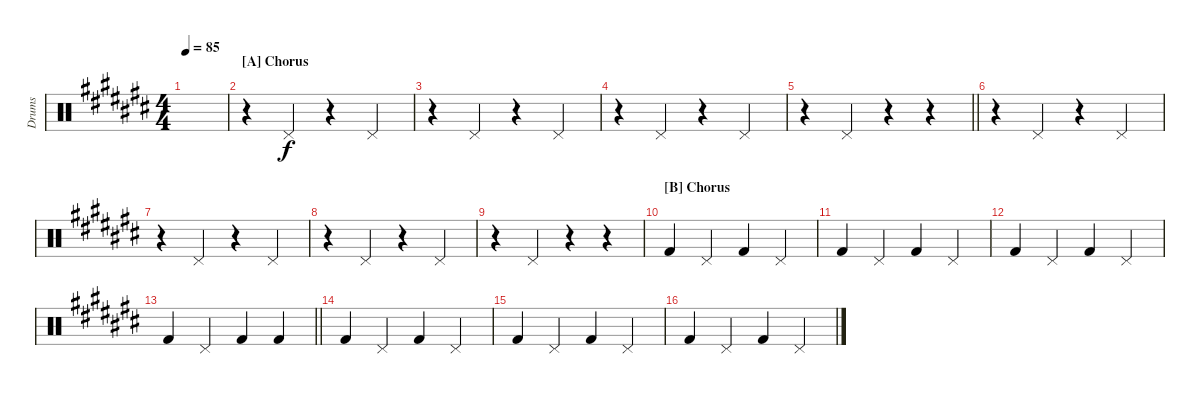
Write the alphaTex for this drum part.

\bracketExtendMode groupsimilarinstruments
\otherSystemsTrackNameOrientation horizontal
\track ("Drumkit" "Drums") {instrument percussion}
\staff {score}
\articulation defaults
\ts (4 4)
\scale
0.977525
\tempo 85
\accidentals auto
\clef neutral
\ottava regular
\simile none
\scale
0.333333
\ks c#
|
\section ("A" "Chorus")
\scale
0.963488
\scale
0.333333 r.4{beam Down} "Pedal Hi-Hat (hit)"{acc forcenatural}.4{beam Up} r.4{beam Up} "Pedal Hi-Hat (hit)"{acc forcenatural}.4{beam Up} |
\scale
1.04228
\scale
0.333333 r.4{beam Down} "Pedal Hi-Hat (hit)"{acc forcenatural}.4{beam Up} r.4{beam Up} "Pedal Hi-Hat (hit)"{acc forcenatural}.4{beam Up} |
\scale
0.971843
\scale
0.333333 r.4{beam Down} "Pedal Hi-Hat (hit)"{acc forcenatural}.4{beam Up} r.4{beam Up} "Pedal Hi-Hat (hit)"{acc forcenatural}.4{beam Up} |
\scale
0.98588
\scale
0.333333
\barLineRight lightlight
r.4{beam Down} "Pedal Hi-Hat (hit)"{acc forcenatural}.4{beam Up} r.4{beam Up} r.4{beam Up} |
\scale
1.07202
\scale
0.333333 r.4{beam Down} "Pedal Hi-Hat (hit)"{acc forcenatural}.4{beam Up} r.4{beam Up} "Pedal Hi-Hat (hit)"{acc forcenatural}.4{beam Up} |
\scale
0.951457
\scale
0.333333 r.4{beam Down} "Pedal Hi-Hat (hit)"{acc forcenatural}.4{beam Up} r.4{beam Up} "Pedal Hi-Hat (hit)"{acc forcenatural}.4{beam Up} |
\scale
0.976522
\scale
0.333333 r.4{beam Down} "Pedal Hi-Hat (hit)"{acc forcenatural}.4{beam Up} r.4{beam Up} "Pedal Hi-Hat (hit)"{acc forcenatural}.4{beam Up} |
\scale
1.08138
\scale
0.333333 r.4{beam Down} "Pedal Hi-Hat (hit)"{acc forcenatural}.4{beam Up} r.4{beam Up} r.4{beam Up} |
\section ("B" "Chorus")
\scale
0.971843
\scale
0.333333 "Kick (hit) 2"{acc forcenatural}.4{beam Up} "Pedal Hi-Hat (hit)"{acc forcenatural}.4{beam Up} "Kick (hit) 2"{acc forcenatural}.4{beam Up} "Pedal Hi-Hat (hit)"{acc forcenatural}.4{beam Up} |
\scale
0.946778
\scale
0.333333 "Kick (hit) 2"{acc forcenatural}.4{beam Up} "Pedal Hi-Hat (hit)"{acc forcenatural}.4{beam Up} "Kick (hit) 2"{acc forcenatural}.4{beam Up} "Pedal Hi-Hat (hit)"{acc forcenatural}.4{beam Up} |
\scale
1.05899
\scale
0.333333 "Kick (hit) 2"{acc forcenatural}.4{beam Up} "Pedal Hi-Hat (hit)"{acc forcenatural}.4{beam Up} "Kick (hit) 2"{acc forcenatural}.4{beam Up} "Pedal Hi-Hat (hit)"{acc forcenatural}.4{beam Up} |
\scale
0.977525
\scale
0.333333
\barLineRight lightlight "Kick (hit) 2"{acc forcenatural}.4{beam Up} "Pedal Hi-Hat (hit)"{acc forcenatural}.4{beam Up} "Kick (hit) 2"{acc forcenatural}.4{beam Up} "Kick (hit) 2"{acc forcenatural}.4{beam Up}
|
\scale
0.963488
\scale
0.333333 "Kick (hit) 2"{acc forcenatural}.4{beam Up} "Pedal Hi-Hat (hit)"{acc forcenatural}.4{beam Up} "Kick (hit) 2"{acc forcenatural}.4{beam Up} "Pedal Hi-Hat (hit)"{acc forcenatural}.4{beam Up} |
\scale
1.04228
\scale
0.333333 "Kick (hit) 2"{acc forcenatural}.4{beam Up} "Pedal Hi-Hat (hit)"{acc forcenatural}.4{beam Up} "Kick (hit) 2"{acc forcenatural}.4{beam Up} "Pedal Hi-Hat (hit)"{acc forcenatural}.4{beam Up} |
\scale
0.971843
\scale
0.333333 "Kick (hit) 2"{acc forcenatural}.4{beam Up} "Pedal Hi-Hat (hit)"{acc forcenatural}.4{beam Up} "Kick (hit) 2"{acc forcenatural}.4{beam Up} "Pedal Hi-Hat (hit)"{acc forcenatural}.4{beam Up}
